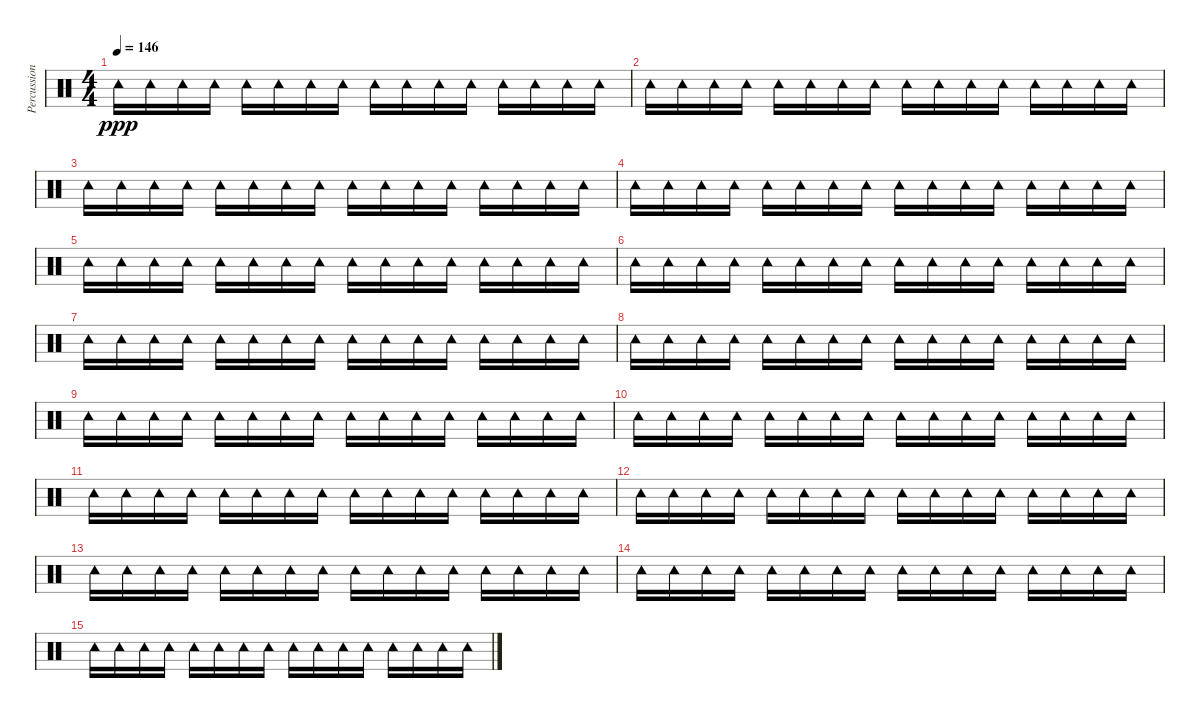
\track ("Percussion" "Percussion") {instrument percussion}
\staff {score}
\articulation defaults
\ts (4 4)
\tempo 146
\clef neutral
\ks c "Tambourine (hit)".16{dy ppp} "Tambourine (hit)".16 "Tambourine (hit)".16 "Tambourine (hit)".16 "Tambourine (hit)".16 "Tambourine (hit)".16 "Tambourine (hit)".16 "Tambourine (hit)".16 "Tambourine (hit)".16 "Tambourine (hit)".16 "Tambourine (hit)".16 "Tambourine (hit)".16 "Tambourine (hit)".16 "Tambourine (hit)".16 "Tambourine (hit)".16 "Tambourine (hit)".16
|
"Tambourine (hit)".16 "Tambourine (hit)".16 "Tambourine (hit)".16 "Tambourine (hit)".16 "Tambourine (hit)".16 "Tambourine (hit)".16 "Tambourine (hit)".16 "Tambourine (hit)".16 "Tambourine (hit)".16 "Tambourine (hit)".16 "Tambourine (hit)".16 "Tambourine (hit)".16 "Tambourine (hit)".16 "Tambourine (hit)".16 "Tambourine (hit)".16 "Tambourine (hit)".16 |
"Tambourine (hit)".16 "Tambourine (hit)".16 "Tambourine (hit)".16 "Tambourine (hit)".16 "Tambourine (hit)".16 "Tambourine (hit)".16 "Tambourine (hit)".16 "Tambourine (hit)".16 "Tambourine (hit)".16 "Tambourine (hit)".16 "Tambourine (hit)".16 "Tambourine (hit)".16 "Tambourine (hit)".16 "Tambourine (hit)".16 "Tambourine (hit)".16 "Tambourine (hit)".16 |
"Tambourine (hit)".16 "Tambourine (hit)".16 "Tambourine (hit)".16 "Tambourine (hit)".16 "Tambourine (hit)".16 "Tambourine (hit)".16 "Tambourine (hit)".16 "Tambourine (hit)".16 "Tambourine (hit)".16 "Tambourine (hit)".16 "Tambourine (hit)".16 "Tambourine (hit)".16 "Tambourine (hit)".16 "Tambourine (hit)".16 "Tambourine (hit)".16 "Tambourine (hit)".16 |
"Tambourine (hit)".16 "Tambourine (hit)".16 "Tambourine (hit)".16 "Tambourine (hit)".16 "Tambourine (hit)".16 "Tambourine (hit)".16 "Tambourine (hit)".16 "Tambourine (hit)".16 "Tambourine (hit)".16 "Tambourine (hit)".16 "Tambourine (hit)".16 "Tambourine (hit)".16 "Tambourine (hit)".16 "Tambourine (hit)".16 "Tambourine (hit)".16 "Tambourine (hit)".16 |
"Tambourine (hit)".16 "Tambourine (hit)".16 "Tambourine (hit)".16 "Tambourine (hit)".16 "Tambourine (hit)".16 "Tambourine (hit)".16 "Tambourine (hit)".16 "Tambourine (hit)".16 "Tambourine (hit)".16 "Tambourine (hit)".16 "Tambourine (hit)".16 "Tambourine (hit)".16 "Tambourine (hit)".16 "Tambourine (hit)".16 "Tambourine (hit)".16 "Tambourine (hit)".16 |
"Tambourine (hit)".16 "Tambourine (hit)".16 "Tambourine (hit)".16 "Tambourine (hit)".16 "Tambourine (hit)".16 "Tambourine (hit)".16 "Tambourine (hit)".16 "Tambourine (hit)".16 "Tambourine (hit)".16 "Tambourine (hit)".16 "Tambourine (hit)".16 "Tambourine (hit)".16 "Tambourine (hit)".16 "Tambourine (hit)".16 "Tambourine (hit)".16 "Tambourine (hit)".16 |
"Tambourine (hit)".16 "Tambourine (hit)".16 "Tambourine (hit)".16 "Tambourine (hit)".16 "Tambourine (hit)".16 "Tambourine (hit)".16 "Tambourine (hit)".16 "Tambourine (hit)".16 "Tambourine (hit)".16 "Tambourine (hit)".16 "Tambourine (hit)".16 "Tambourine (hit)".16 "Tambourine (hit)".16 "Tambourine (hit)".16 "Tambourine (hit)".16 "Tambourine (hit)".16 |
"Tambourine (hit)".16 "Tambourine (hit)".16 "Tambourine (hit)".16 "Tambourine (hit)".16 "Tambourine (hit)".16 "Tambourine (hit)".16 "Tambourine (hit)".16 "Tambourine (hit)".16 "Tambourine (hit)".16 "Tambourine (hit)".16 "Tambourine (hit)".16 "Tambourine (hit)".16 "Tambourine (hit)".16 "Tambourine (hit)".16 "Tambourine (hit)".16 "Tambourine (hit)".16 |
"Tambourine (hit)".16 "Tambourine (hit)".16 "Tambourine (hit)".16 "Tambourine (hit)".16 "Tambourine (hit)".16 "Tambourine (hit)".16 "Tambourine (hit)".16 "Tambourine (hit)".16 "Tambourine (hit)".16 "Tambourine (hit)".16 "Tambourine (hit)".16 "Tambourine (hit)".16 "Tambourine (hit)".16 "Tambourine (hit)".16 "Tambourine (hit)".16 "Tambourine (hit)".16 |
"Tambourine (hit)".16 "Tambourine (hit)".16 "Tambourine (hit)".16 "Tambourine (hit)".16 "Tambourine (hit)".16 "Tambourine (hit)".16 "Tambourine (hit)".16 "Tambourine (hit)".16 "Tambourine (hit)".16 "Tambourine (hit)".16 "Tambourine (hit)".16 "Tambourine (hit)".16 "Tambourine (hit)".16 "Tambourine (hit)".16 "Tambourine (hit)".16 "Tambourine (hit)".16 |
"Tambourine (hit)".16 "Tambourine (hit)".16 "Tambourine (hit)".16 "Tambourine (hit)".16 "Tambourine (hit)".16 "Tambourine (hit)".16 "Tambourine (hit)".16 "Tambourine (hit)".16 "Tambourine (hit)".16 "Tambourine (hit)".16 "Tambourine (hit)".16 "Tambourine (hit)".16 "Tambourine (hit)".16 "Tambourine (hit)".16 "Tambourine (hit)".16 "Tambourine (hit)".16 |
"Tambourine (hit)".16 "Tambourine (hit)".16 "Tambourine (hit)".16 "Tambourine (hit)".16 "Tambourine (hit)".16 "Tambourine (hit)".16 "Tambourine (hit)".16 "Tambourine (hit)".16 "Tambourine (hit)".16 "Tambourine (hit)".16 "Tambourine (hit)".16 "Tambourine (hit)".16 "Tambourine (hit)".16 "Tambourine (hit)".16 "Tambourine (hit)".16 "Tambourine (hit)".16 |
"Tambourine (hit)".16 "Tambourine (hit)".16 "Tambourine (hit)".16 "Tambourine (hit)".16 "Tambourine (hit)".16 "Tambourine (hit)".16 "Tambourine (hit)".16 "Tambourine (hit)".16 "Tambourine (hit)".16 "Tambourine (hit)".16 "Tambourine (hit)".16 "Tambourine (hit)".16 "Tambourine (hit)".16 "Tambourine (hit)".16 "Tambourine (hit)".16 "Tambourine (hit)".16 |
"Tambourine (hit)".16 "Tambourine (hit)".16 "Tambourine (hit)".16 "Tambourine (hit)".16 "Tambourine (hit)".16 "Tambourine (hit)".16 "Tambourine (hit)".16 "Tambourine (hit)".16 "Tambourine (hit)".16 "Tambourine (hit)".16 "Tambourine (hit)".16 "Tambourine (hit)".16 "Tambourine (hit)".16 "Tambourine (hit)".16 "Tambourine (hit)".16 "Tambourine (hit)".16
